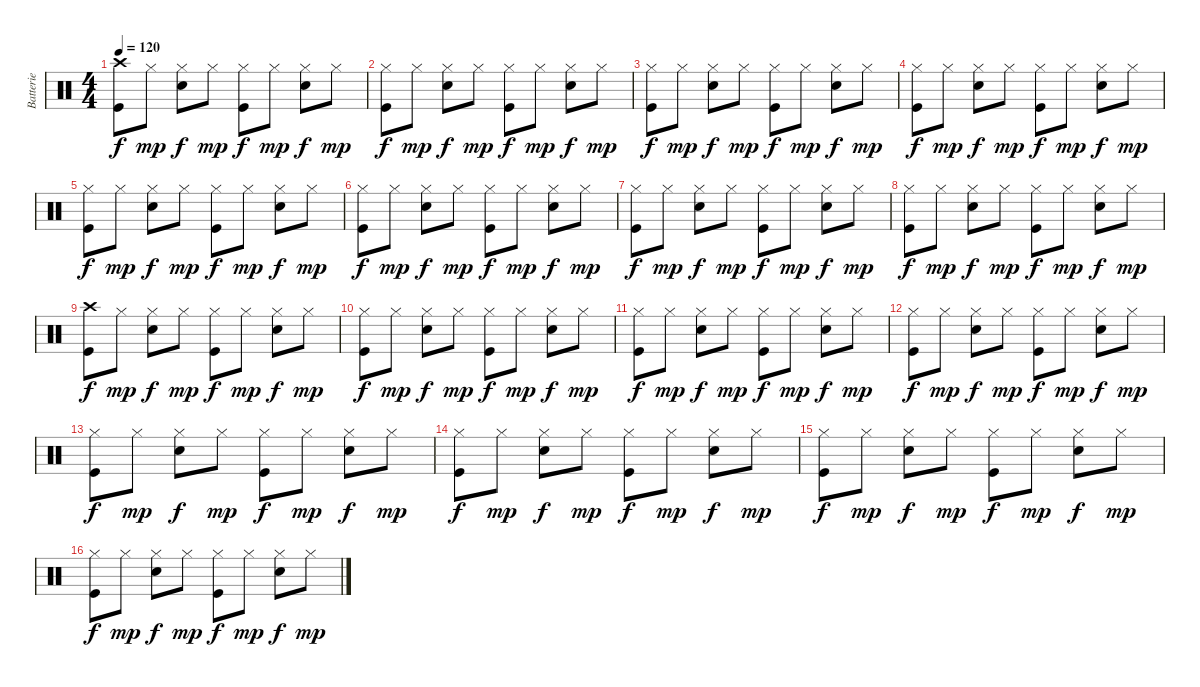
\track ("Batterie" "Batterie") {instrument percussion}
\staff {score}
\articulation defaults
\ts (4 4)
\tempo 120
\clef neutral
\ks c
("Crash high (hit)" "Kick (hit)").8{dy f} "Hi-Hat (closed)".8{dy mp} ("Hi-Hat (closed)" "Snare (hit) 2").8{dy f} "Hi-Hat (closed)".8{dy mp} ("Hi-Hat (closed)" "Kick (hit)").8{dy f} "Hi-Hat (closed)".8{dy mp} ("Hi-Hat (closed)" "Snare (hit) 2").8{dy f} "Hi-Hat (closed)".8{dy mp} |
("Hi-Hat (closed)" "Kick (hit)").8{dy f} "Hi-Hat (closed)".8{dy mp} ("Hi-Hat (closed)" "Snare (hit) 2").8{dy f} "Hi-Hat (closed)".8{dy mp} ("Hi-Hat (closed)" "Kick (hit)").8{dy f} "Hi-Hat (closed)".8{dy mp} ("Hi-Hat (closed)" "Snare (hit) 2").8{dy f} "Hi-Hat (closed)".8{dy mp} |
("Hi-Hat (closed)" "Kick (hit)").8{dy f} "Hi-Hat (closed)".8{dy mp} ("Hi-Hat (closed)" "Snare (hit) 2").8{dy f} "Hi-Hat (closed)".8{dy mp} ("Hi-Hat (closed)" "Kick (hit)").8{dy f} "Hi-Hat (closed)".8{dy mp} ("Hi-Hat (closed)" "Snare (hit) 2").8{dy f} "Hi-Hat (closed)".8{dy mp} |
("Hi-Hat (closed)" "Kick (hit)").8{dy f} "Hi-Hat (closed)".8{dy mp} ("Hi-Hat (closed)" "Snare (hit) 2").8{dy f} "Hi-Hat (closed)".8{dy mp} ("Hi-Hat (closed)" "Kick (hit)").8{dy f} "Hi-Hat (closed)".8{dy mp} ("Hi-Hat (closed)" "Snare (hit) 2").8{dy f} "Hi-Hat (closed)".8{dy mp} |
("Hi-Hat (closed)" "Kick (hit)").8{dy f} "Hi-Hat (closed)".8{dy mp} ("Hi-Hat (closed)" "Snare (hit) 2").8{dy f} "Hi-Hat (closed)".8{dy mp} ("Hi-Hat (closed)" "Kick (hit)").8{dy f} "Hi-Hat (closed)".8{dy mp} ("Hi-Hat (closed)" "Snare (hit) 2").8{dy f} "Hi-Hat (closed)".8{dy mp} |
("Hi-Hat (closed)" "Kick (hit)").8{dy f} "Hi-Hat (closed)".8{dy mp} ("Hi-Hat (closed)" "Snare (hit) 2").8{dy f} "Hi-Hat (closed)".8{dy mp} ("Hi-Hat (closed)" "Kick (hit)").8{dy f} "Hi-Hat (closed)".8{dy mp} ("Hi-Hat (closed)" "Snare (hit) 2").8{dy f} "Hi-Hat (closed)".8{dy mp} |
("Hi-Hat (closed)" "Kick (hit)").8{dy f} "Hi-Hat (closed)".8{dy mp} ("Hi-Hat (closed)" "Snare (hit) 2").8{dy f} "Hi-Hat (closed)".8{dy mp} ("Hi-Hat (closed)" "Kick (hit)").8{dy f} "Hi-Hat (closed)".8{dy mp} ("Hi-Hat (closed)" "Snare (hit) 2").8{dy f} "Hi-Hat (closed)".8{dy mp} |
("Hi-Hat (closed)" "Kick (hit)").8{dy f} "Hi-Hat (closed)".8{dy mp} ("Hi-Hat (closed)" "Snare (hit) 2").8{dy f} "Hi-Hat (closed)".8{dy mp} ("Hi-Hat (closed)" "Kick (hit)").8{dy f} "Hi-Hat (closed)".8{dy mp} ("Hi-Hat (closed)" "Snare (hit) 2").8{dy f} "Hi-Hat (closed)".8{dy mp} |
("Crash high (hit)" "Kick (hit)").8{dy f} "Hi-Hat (closed)".8{dy mp} ("Hi-Hat (closed)" "Snare (hit) 2").8{dy f} "Hi-Hat (closed)".8{dy mp} ("Hi-Hat (closed)" "Kick (hit)").8{dy f} "Hi-Hat (closed)".8{dy mp} ("Hi-Hat (closed)" "Snare (hit) 2").8{dy f} "Hi-Hat (closed)".8{dy mp} |
("Hi-Hat (closed)" "Kick (hit)").8{dy f} "Hi-Hat (closed)".8{dy mp} ("Hi-Hat (closed)" "Snare (hit) 2").8{dy f} "Hi-Hat (closed)".8{dy mp} ("Hi-Hat (closed)" "Kick (hit)").8{dy f} "Hi-Hat (closed)".8{dy mp} ("Hi-Hat (closed)" "Snare (hit) 2").8{dy f} "Hi-Hat (closed)".8{dy mp} |
("Hi-Hat (closed)" "Kick (hit)").8{dy f} "Hi-Hat (closed)".8{dy mp} ("Hi-Hat (closed)" "Snare (hit) 2").8{dy f} "Hi-Hat (closed)".8{dy mp} ("Hi-Hat (closed)" "Kick (hit)").8{dy f} "Hi-Hat (closed)".8{dy mp} ("Hi-Hat (closed)" "Snare (hit) 2").8{dy f} "Hi-Hat (closed)".8{dy mp} |
("Hi-Hat (closed)" "Kick (hit)").8{dy f} "Hi-Hat (closed)".8{dy mp} ("Hi-Hat (closed)" "Snare (hit) 2").8{dy f} "Hi-Hat (closed)".8{dy mp} ("Hi-Hat (closed)" "Kick (hit)").8{dy f} "Hi-Hat (closed)".8{dy mp} ("Hi-Hat (closed)" "Snare (hit) 2").8{dy f} "Hi-Hat (closed)".8{dy mp} |
("Hi-Hat (closed)" "Kick (hit)").8{dy f} "Hi-Hat (closed)".8{dy mp} ("Hi-Hat (closed)" "Snare (hit) 2").8{dy f} "Hi-Hat (closed)".8{dy mp} ("Hi-Hat (closed)" "Kick (hit)").8{dy f} "Hi-Hat (closed)".8{dy mp} ("Hi-Hat (closed)" "Snare (hit) 2").8{dy f} "Hi-Hat (closed)".8{dy mp} |
("Hi-Hat (closed)" "Kick (hit)").8{dy f} "Hi-Hat (closed)".8{dy mp} ("Hi-Hat (closed)" "Snare (hit) 2").8{dy f} "Hi-Hat (closed)".8{dy mp} ("Hi-Hat (closed)" "Kick (hit)").8{dy f} "Hi-Hat (closed)".8{dy mp} ("Hi-Hat (closed)" "Snare (hit) 2").8{dy f} "Hi-Hat (closed)".8{dy mp} |
("Hi-Hat (closed)" "Kick (hit)").8{dy f} "Hi-Hat (closed)".8{dy mp} ("Hi-Hat (closed)" "Snare (hit) 2").8{dy f} "Hi-Hat (closed)".8{dy mp} ("Hi-Hat (closed)" "Kick (hit)").8{dy f} "Hi-Hat (closed)".8{dy mp} ("Hi-Hat (closed)" "Snare (hit) 2").8{dy f} "Hi-Hat (closed)".8{dy mp} |
("Hi-Hat (closed)" "Kick (hit)").8{dy f} "Hi-Hat (closed)".8{dy mp} ("Hi-Hat (closed)" "Snare (hit) 2").8{dy f} "Hi-Hat (closed)".8{dy mp} ("Hi-Hat (closed)" "Kick (hit)").8{dy f} "Hi-Hat (closed)".8{dy mp} ("Hi-Hat (closed)" "Snare (hit) 2").8{dy f} "Hi-Hat (closed)".8{dy mp}
